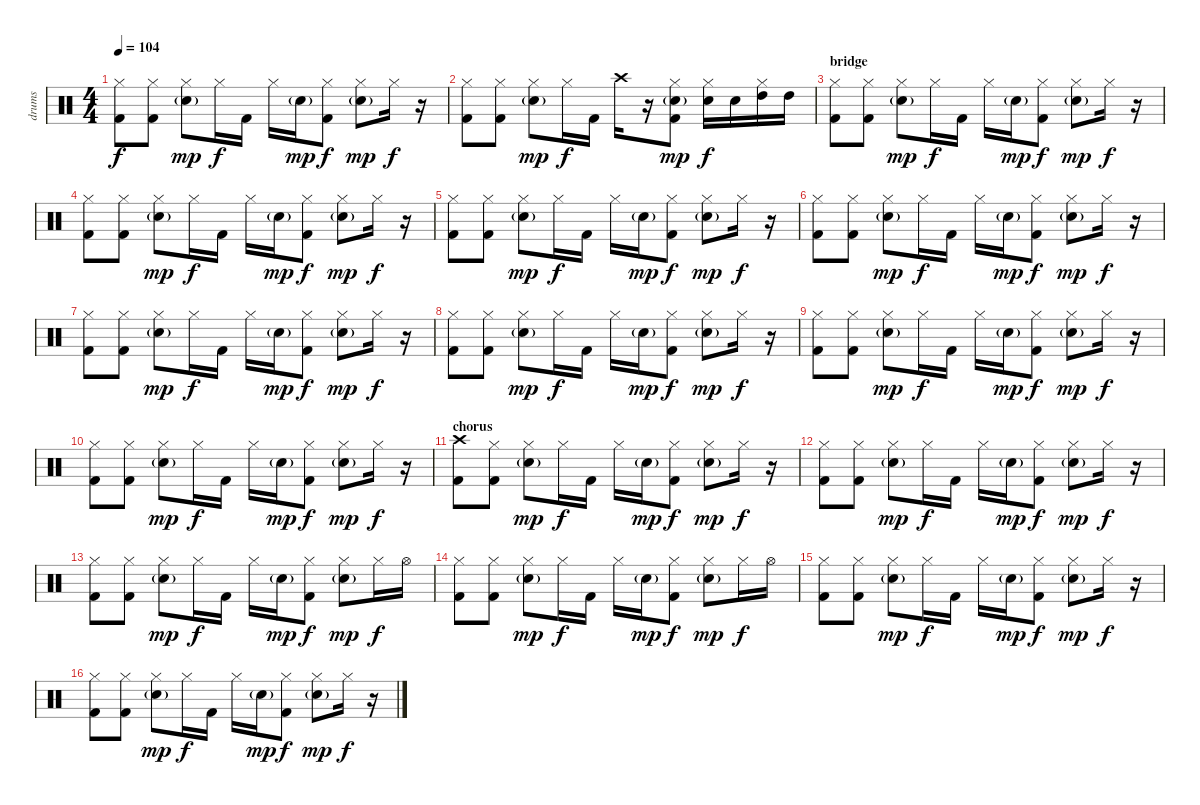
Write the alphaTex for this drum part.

\track ("drums" "drums") {instrument percussion}
\staff {score}
\articulation defaults
\ts (4 4)
\tempo 104
\clef neutral
\ks c
("Hi-Hat (closed)" "Kick (hit) 2").8{dy f} ("Hi-Hat (closed)" "Kick (hit) 2").8 ("Hi-Hat (closed)" "Electric Snare (hit)"{g}).8{dy mp} "Hi-Hat (closed)".16{dy f} "Kick (hit) 2".16 "Hi-Hat (closed)".16 "Electric Snare (hit)"{g}.16{dy mp} ("Hi-Hat (closed)" "Kick (hit) 2").8{dy f} ("Hi-Hat (closed)" "Electric Snare (hit)"{g}).8{dy mp} "Hi-Hat (closed)".16{dy f} r.16 |
("Hi-Hat (closed)" "Kick (hit) 2").8 ("Hi-Hat (closed)" "Kick (hit) 2").8 ("Hi-Hat (closed)" "Electric Snare (hit)"{g}).8{dy mp} "Hi-Hat (closed)".16{dy f} "Kick (hit) 2".16 "Crash high (hit)".16 r.16 ("Hi-Hat (closed)" "Electric Snare (hit)"{g} "Kick (hit) 2").8{dy mp} ("Hi-Hat (closed)" "Electric Snare (hit)").16{dy f} "Electric Snare (hit)".16 ("Hi-Hat (closed)" "High Tom (hit)").16 "High Tom (hit)".16 |
\section ("" "bridge")
("Hi-Hat (closed)" "Kick (hit) 2").8 ("Hi-Hat (closed)" "Kick (hit) 2").8 ("Hi-Hat (closed)" "Electric Snare (hit)"{g}).8{dy mp} "Hi-Hat (closed)".16{dy f} "Kick (hit) 2".16 "Hi-Hat (closed)".16 "Electric Snare (hit)"{g}.16{dy mp} ("Hi-Hat (closed)" "Kick (hit) 2").8{dy f} ("Hi-Hat (closed)" "Electric Snare (hit)"{g}).8{dy mp} "Hi-Hat (closed)".16{dy f} r.16 |
("Hi-Hat (closed)" "Kick (hit) 2").8 ("Hi-Hat (closed)" "Kick (hit) 2").8 ("Hi-Hat (closed)" "Electric Snare (hit)"{g}).8{dy mp} "Hi-Hat (closed)".16{dy f} "Kick (hit) 2".16 "Hi-Hat (closed)".16 "Electric Snare (hit)"{g}.16{dy mp} ("Hi-Hat (closed)" "Kick (hit) 2").8{dy f} ("Hi-Hat (closed)" "Electric Snare (hit)"{g}).8{dy mp} "Hi-Hat (closed)".16{dy f} r.16 |
("Hi-Hat (closed)" "Kick (hit) 2").8 ("Hi-Hat (closed)" "Kick (hit) 2").8 ("Hi-Hat (closed)" "Electric Snare (hit)"{g}).8{dy mp} "Hi-Hat (closed)".16{dy f} "Kick (hit) 2".16 "Hi-Hat (closed)".16 "Electric Snare (hit)"{g}.16{dy mp} ("Hi-Hat (closed)" "Kick (hit) 2").8{dy f} ("Hi-Hat (closed)" "Electric Snare (hit)"{g}).8{dy mp} "Hi-Hat (closed)".16{dy f} r.16 |
("Hi-Hat (closed)" "Kick (hit) 2").8 ("Hi-Hat (closed)" "Kick (hit) 2").8 ("Hi-Hat (closed)" "Electric Snare (hit)"{g}).8{dy mp} "Hi-Hat (closed)".16{dy f} "Kick (hit) 2".16 "Hi-Hat (closed)".16 "Electric Snare (hit)"{g}.16{dy mp} ("Hi-Hat (closed)" "Kick (hit) 2").8{dy f} ("Hi-Hat (closed)" "Electric Snare (hit)"{g}).8{dy mp} "Hi-Hat (closed)".16{dy f} r.16 |
("Hi-Hat (closed)" "Kick (hit) 2").8 ("Hi-Hat (closed)" "Kick (hit) 2").8 ("Hi-Hat (closed)" "Electric Snare (hit)"{g}).8{dy mp} "Hi-Hat (closed)".16{dy f} "Kick (hit) 2".16 "Hi-Hat (closed)".16 "Electric Snare (hit)"{g}.16{dy mp} ("Hi-Hat (closed)" "Kick (hit) 2").8{dy f} ("Hi-Hat (closed)" "Electric Snare (hit)"{g}).8{dy mp} "Hi-Hat (closed)".16{dy f} r.16 |
("Hi-Hat (closed)" "Kick (hit) 2").8 ("Hi-Hat (closed)" "Kick (hit) 2").8 ("Hi-Hat (closed)" "Electric Snare (hit)"{g}).8{dy mp} "Hi-Hat (closed)".16{dy f} "Kick (hit) 2".16 "Hi-Hat (closed)".16 "Electric Snare (hit)"{g}.16{dy mp} ("Hi-Hat (closed)" "Kick (hit) 2").8{dy f} ("Hi-Hat (closed)" "Electric Snare (hit)"{g}).8{dy mp} "Hi-Hat (closed)".16{dy f} r.16 |
("Hi-Hat (closed)" "Kick (hit) 2").8 ("Hi-Hat (closed)" "Kick (hit) 2").8 ("Hi-Hat (closed)" "Electric Snare (hit)"{g}).8{dy mp} "Hi-Hat (closed)".16{dy f} "Kick (hit) 2".16 "Hi-Hat (closed)".16 "Electric Snare (hit)"{g}.16{dy mp} ("Hi-Hat (closed)" "Kick (hit) 2").8{dy f} ("Hi-Hat (closed)" "Electric Snare (hit)"{g}).8{dy mp} "Hi-Hat (closed)".16{dy f} r.16 |
("Hi-Hat (closed)" "Kick (hit) 2").8 ("Hi-Hat (closed)" "Kick (hit) 2").8 ("Hi-Hat (closed)" "Electric Snare (hit)"{g}).8{dy mp} "Hi-Hat (closed)".16{dy f} "Kick (hit) 2".16 "Hi-Hat (closed)".16 "Electric Snare (hit)"{g}.16{dy mp} ("Hi-Hat (closed)" "Kick (hit) 2").8{dy f} ("Hi-Hat (closed)" "Electric Snare (hit)"{g}).8{dy mp} "Hi-Hat (closed)".16{dy f} r.16 |
\section ("" "chorus")
("Crash high (hit)" "Kick (hit) 2").8 ("Hi-Hat (closed)" "Kick (hit) 2").8 ("Hi-Hat (closed)" "Electric Snare (hit)"{g}).8{dy mp} "Hi-Hat (closed)".16{dy f} "Kick (hit) 2".16 "Hi-Hat (closed)".16 "Electric Snare (hit)"{g}.16{dy mp} ("Hi-Hat (closed)" "Kick (hit) 2").8{dy f} ("Hi-Hat (closed)" "Electric Snare (hit)"{g}).8{dy mp} "Hi-Hat (closed)".16{dy f} r.16 |
("Hi-Hat (closed)" "Kick (hit) 2").8 ("Hi-Hat (closed)" "Kick (hit) 2").8 ("Hi-Hat (closed)" "Electric Snare (hit)"{g}).8{dy mp} "Hi-Hat (closed)".16{dy f} "Kick (hit) 2".16 "Hi-Hat (closed)".16 "Electric Snare (hit)"{g}.16{dy mp} ("Hi-Hat (closed)" "Kick (hit) 2").8{dy f} ("Hi-Hat (closed)" "Electric Snare (hit)"{g}).8{dy mp} "Hi-Hat (closed)".16{dy f} r.16 |
("Hi-Hat (closed)" "Kick (hit) 2").8 ("Hi-Hat (closed)" "Kick (hit) 2").8 ("Hi-Hat (closed)" "Electric Snare (hit)"{g}).8{dy mp} "Hi-Hat (closed)".16{dy f} "Kick (hit) 2".16 "Hi-Hat (closed)".16 "Electric Snare (hit)"{g}.16{dy mp} ("Hi-Hat (closed)" "Kick (hit) 2").8{dy f} ("Hi-Hat (closed)" "Electric Snare (hit)"{g}).8{dy mp} "Hi-Hat (closed)".16{dy f} "Hi-Hat (open)".16 |
("Hi-Hat (closed)" "Kick (hit) 2").8 ("Hi-Hat (closed)" "Kick (hit) 2").8 ("Hi-Hat (closed)" "Electric Snare (hit)"{g}).8{dy mp} "Hi-Hat (closed)".16{dy f} "Kick (hit) 2".16 "Hi-Hat (closed)".16 "Electric Snare (hit)"{g}.16{dy mp} ("Hi-Hat (closed)" "Kick (hit) 2").8{dy f} ("Hi-Hat (closed)" "Electric Snare (hit)"{g}).8{dy mp} "Hi-Hat (closed)".16{dy f} "Hi-Hat (open)".16 |
("Hi-Hat (closed)" "Kick (hit) 2").8 ("Hi-Hat (closed)" "Kick (hit) 2").8 ("Hi-Hat (closed)" "Electric Snare (hit)"{g}).8{dy mp} "Hi-Hat (closed)".16{dy f} "Kick (hit) 2".16 "Hi-Hat (closed)".16 "Electric Snare (hit)"{g}.16{dy mp} ("Hi-Hat (closed)" "Kick (hit) 2").8{dy f} ("Hi-Hat (closed)" "Electric Snare (hit)"{g}).8{dy mp} "Hi-Hat (closed)".16{dy f} r.16 |
("Hi-Hat (closed)" "Kick (hit) 2").8 ("Hi-Hat (closed)" "Kick (hit) 2").8 ("Hi-Hat (closed)" "Electric Snare (hit)"{g}).8{dy mp} "Hi-Hat (closed)".16{dy f} "Kick (hit) 2".16 "Hi-Hat (closed)".16 "Electric Snare (hit)"{g}.16{dy mp} ("Hi-Hat (closed)" "Kick (hit) 2").8{dy f} ("Hi-Hat (closed)" "Electric Snare (hit)"{g}).8{dy mp} "Hi-Hat (closed)".16{dy f} r.16
